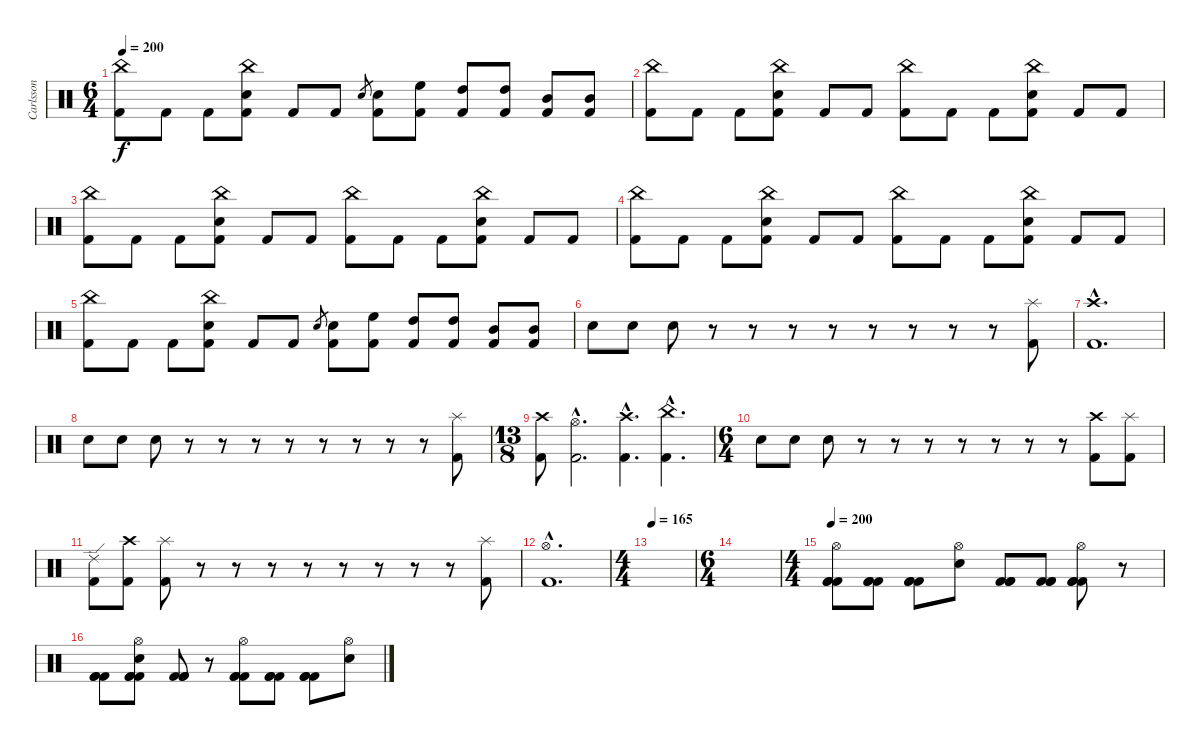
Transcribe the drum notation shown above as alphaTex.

\track ("Carlsson" "Carlsson") {instrument percussion}
\staff {score}
\articulation defaults
\ts (6 4)
\tempo 200
\clef neutral
\ks c
("China (hit)" "Kick (hit) 2").8{dy f} "Kick (hit) 2".8 "Kick (hit) 2".8 ("China (hit)" "Snare (hit) 2" "Kick (hit) 2").8 "Kick (hit) 2".8 "Kick (hit) 2".8 "Snare (hit) 2".8{gr} ("Snare (hit) 2" "Kick (hit) 2").8 ("High Floor Tom (hit)" "Kick (hit) 2").8 ("High Tom (hit)" "Kick (hit) 2").8 ("High Tom (hit)" "Kick (hit) 2").8 ("Mid Tom (hit)" "Kick (hit) 2").8 ("Mid Tom (hit)" "Kick (hit) 2").8 |
("China (hit)" "Kick (hit) 2").8 "Kick (hit) 2".8 "Kick (hit) 2".8 ("China (hit)" "Snare (hit) 2" "Kick (hit) 2").8 "Kick (hit) 2".8 "Kick (hit) 2".8 ("China (hit)" "Kick (hit) 2").8 "Kick (hit) 2".8 "Kick (hit) 2".8 ("China (hit)" "Snare (hit) 2" "Kick (hit) 2").8 "Kick (hit) 2".8 "Kick (hit) 2".8 |
("China (hit)" "Kick (hit) 2").8 "Kick (hit) 2".8 "Kick (hit) 2".8 ("China (hit)" "Snare (hit) 2" "Kick (hit) 2").8 "Kick (hit) 2".8 "Kick (hit) 2".8 ("China (hit)" "Kick (hit) 2").8 "Kick (hit) 2".8 "Kick (hit) 2".8 ("China (hit)" "Snare (hit) 2" "Kick (hit) 2").8 "Kick (hit) 2".8 "Kick (hit) 2".8 |
("China (hit)" "Kick (hit) 2").8 "Kick (hit) 2".8 "Kick (hit) 2".8 ("China (hit)" "Snare (hit) 2" "Kick (hit) 2").8 "Kick (hit) 2".8 "Kick (hit) 2".8 ("China (hit)" "Kick (hit) 2").8 "Kick (hit) 2".8 "Kick (hit) 2".8 ("China (hit)" "Snare (hit) 2" "Kick (hit) 2").8 "Kick (hit) 2".8 "Kick (hit) 2".8 |
("China (hit)" "Kick (hit) 2").8 "Kick (hit) 2".8 "Kick (hit) 2".8 ("China (hit)" "Snare (hit) 2" "Kick (hit) 2").8 "Kick (hit) 2".8 "Kick (hit) 2".8 "Snare (hit) 2".8{gr} ("Snare (hit) 2" "Kick (hit) 2").8 ("High Floor Tom (hit)" "Kick (hit) 2").8 ("High Tom (hit)" "Kick (hit) 2").8 ("High Tom (hit)" "Kick (hit) 2").8 ("Mid Tom (hit)" "Kick (hit) 2").8 ("Mid Tom (hit)" "Kick (hit) 2").8 |
"Snare (hit) 2".8 "Snare (hit) 2".8 "Snare (hit) 2".8 r.8 r.8 r.8 r.8 r.8 r.8 r.8 r.8 ("Splash (hit)" "Kick (hit) 2").8 |
("Crash high (hit)"{hac} "Kick (hit) 2"{hac}).1{d} |
"Snare (hit) 2".8 "Snare (hit) 2".8 "Snare (hit) 2".8 r.8 r.8 r.8 r.8 r.8 r.8 r.8 r.8 ("Splash (hit)" "Kick (hit) 2").8 |
\ts (13 8)
("Crash high (hit)" "Kick (hit) 2").8 ("Hi-Hat (open)"{hac} "Kick (hit) 2"{hac}).2{d} ("Crash high (hit)"{hac} "Kick (hit) 2"{hac}).4{d} ("China (hit)"{hac} "Kick (hit) 2"{hac}).4{d} |
\ts (6 4)
"Snare (hit) 2".8 "Snare (hit) 2".8 "Snare (hit) 2".8 r.8 r.8 r.8 r.8 r.8 r.8 r.8 ("Crash high (hit)" "Kick (hit) 2").8 ("Splash (hit)" "Kick (hit) 2").8 |
("Ride (edge) 2" "Kick (hit) 2").8 ("Crash high (hit)" "Kick (hit) 2").8 ("Splash (hit)" "Kick (hit) 2").8 r.8 r.8 r.8 r.8 r.8 r.8 r.8 r.8 ("Splash (hit)" "Kick (hit) 2").8 |
("Hi-Hat (open)"{hac} "Kick (hit) 2"{hac}).1{d} |
\ts (4 4)
\tempo 165
|
\ts (6 4)
|
\ts (4 4)
\tempo 200
("Hi-Hat (open)" "Kick (hit) 2" "Kick (hit) 2" "Kick (hit) 2").8 ("Kick (hit) 2" "Kick (hit) 2" "Kick (hit) 2").8 ("Kick (hit) 2" "Kick (hit) 2" "Kick (hit) 2").8 ("Hi-Hat (open)" "Snare (hit) 2").8 ("Kick (hit) 2" "Kick (hit) 2" "Kick (hit) 2").8 ("Kick (hit) 2" "Kick (hit) 2" "Kick (hit) 2").8 ("Hi-Hat (open)" "Kick (hit) 2" "Kick (hit) 2" "Kick (hit) 2").8 r.8 |
("Kick (hit) 2" "Kick (hit) 2" "Kick (hit) 2").8 ("Hi-Hat (open)" "Snare (hit) 2" "Kick (hit) 2" "Kick (hit) 2" "Kick (hit) 2").8 ("Kick (hit) 2" "Kick (hit) 2" "Kick (hit) 2").8 r.8 ("Hi-Hat (open)" "Kick (hit) 2" "Kick (hit) 2" "Kick (hit) 2").8 ("Kick (hit) 2" "Kick (hit) 2" "Kick (hit) 2").8 ("Kick (hit) 2" "Kick (hit) 2" "Kick (hit) 2").8 ("Hi-Hat (open)" "Snare (hit) 2").8
